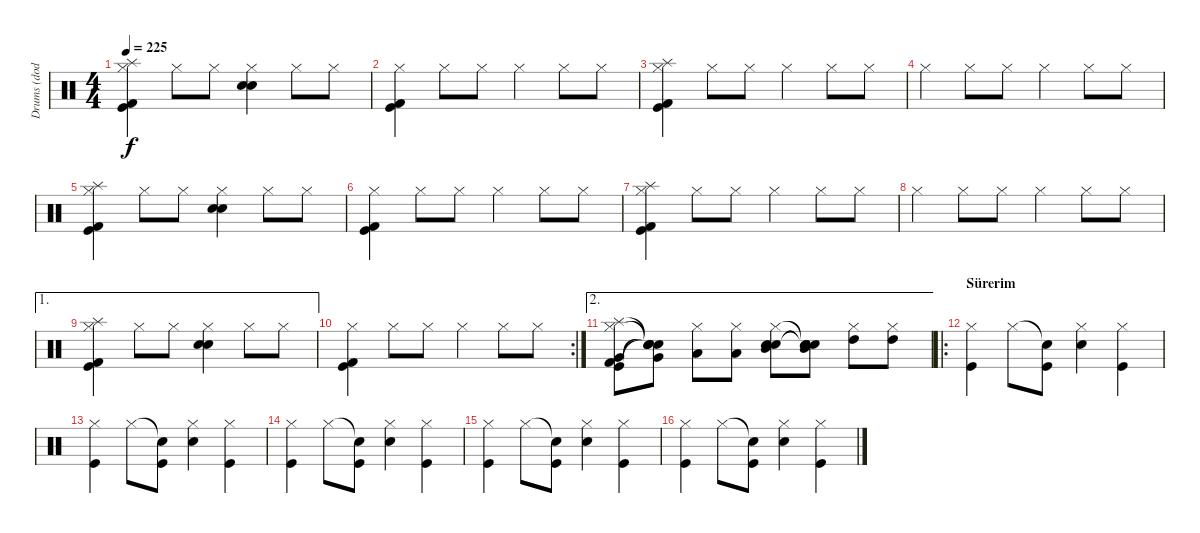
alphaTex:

\track ("Drums (dodo)" "Drums (dod") {instrument percussion}
\staff {score}
\articulation defaults
\ts (4 4)
\tempo 225
\clef neutral
\ks c
("Hi-Hat (closed)" "Splash (hit)" "Kick (hit)" "Kick (hit) 2").4{dy f} "Hi-Hat (closed)".8 "Hi-Hat (closed)".8 ("Hi-Hat (closed)" "Electric Snare (hit)" "Snare (hit) 2").4 "Hi-Hat (closed)".8 "Hi-Hat (closed)".8 |
("Hi-Hat (closed)" "Kick (hit)" "Kick (hit) 2").4 "Hi-Hat (closed)".8 "Hi-Hat (closed)".8 "Hi-Hat (closed)".4 "Hi-Hat (closed)".8 "Hi-Hat (closed)".8 |
("Hi-Hat (closed)" "Splash (hit)" "Kick (hit)" "Kick (hit) 2").4 "Hi-Hat (closed)".8 "Hi-Hat (closed)".8 "Hi-Hat (closed)".4 "Hi-Hat (closed)".8 "Hi-Hat (closed)".8 |
"Hi-Hat (closed)".4 "Hi-Hat (closed)".8 "Hi-Hat (closed)".8 "Hi-Hat (closed)".4 "Hi-Hat (closed)".8 "Hi-Hat (closed)".8 |
("Hi-Hat (closed)" "Splash (hit)" "Kick (hit)" "Kick (hit) 2").4 "Hi-Hat (closed)".8 "Hi-Hat (closed)".8 ("Hi-Hat (closed)" "Electric Snare (hit)" "Snare (hit) 2").4 "Hi-Hat (closed)".8 "Hi-Hat (closed)".8 |
("Hi-Hat (closed)" "Kick (hit)" "Kick (hit) 2").4 "Hi-Hat (closed)".8 "Hi-Hat (closed)".8 "Hi-Hat (closed)".4 "Hi-Hat (closed)".8 "Hi-Hat (closed)".8 |
("Hi-Hat (closed)" "Splash (hit)" "Kick (hit)" "Kick (hit) 2").4 "Hi-Hat (closed)".8 "Hi-Hat (closed)".8 "Hi-Hat (closed)".4 "Hi-Hat (closed)".8 "Hi-Hat (closed)".8 |
"Hi-Hat (closed)".4 "Hi-Hat (closed)".8 "Hi-Hat (closed)".8 "Hi-Hat (closed)".4 "Hi-Hat (closed)".8 "Hi-Hat (closed)".8 |
\ae 1
("Hi-Hat (closed)" "Splash (hit)" "Kick (hit)" "Kick (hit) 2").4 "Hi-Hat (closed)".8 "Hi-Hat (closed)".8 ("Hi-Hat (closed)" "Electric Snare (hit)" "Snare (hit) 2").4 "Hi-Hat (closed)".8 "Hi-Hat (closed)".8 |
\rc 2
("Hi-Hat (closed)" "Kick (hit)" "Kick (hit) 2").4 "Hi-Hat (closed)".8 "Hi-Hat (closed)".8 "Hi-Hat (closed)".4 "Hi-Hat (closed)".8 "Hi-Hat (closed)".8 |
\ae 2
("Hi-Hat (closed)" "Splash (hit)" "Kick (hit)" "Kick (hit) 2" "Very Low Tom (hit)").8 ("Snare (hit)"{t} "Snare (hit)"{t} "Snare (hit)"{t} "Snare (hit)"{t} "Very Low Tom (hit)").8 ("Hi-Hat (closed)" "Low Tom (hit)").8 ("Hi-Hat (closed)" "Low Tom (hit)").8 ("Hi-Hat (closed)" "Electric Snare (hit)" "Snare (hit) 2" "Mid Tom (hit)").8 ("Snare (hit)"{t} "Snare (hit)"{t} "Snare (hit)"{t} "Mid Tom (hit)").8 ("Hi-Hat (closed)" "High Tom (hit)").8 ("Hi-Hat (closed)" "High Tom (hit)").8 |
\ro
\section ("" "Sürerim")
("Hi-Hat (closed)" "Kick (hit)").4 "Hi-Hat (closed)".8 ("Snare (hit)"{t} "Kick (hit)").8 ("Hi-Hat (closed)" "Electric Snare (hit)").4 ("Hi-Hat (closed)" "Kick (hit)").4 |
("Hi-Hat (closed)" "Kick (hit)").4 "Hi-Hat (closed)".8 ("Snare (hit)"{t} "Kick (hit)").8 ("Hi-Hat (closed)" "Electric Snare (hit)").4 ("Hi-Hat (closed)" "Kick (hit)").4 |
("Hi-Hat (closed)" "Kick (hit)").4 "Hi-Hat (closed)".8 ("Snare (hit)"{t} "Kick (hit)").8 ("Hi-Hat (closed)" "Electric Snare (hit)").4 ("Hi-Hat (closed)" "Kick (hit)").4 |
("Hi-Hat (closed)" "Kick (hit)").4 "Hi-Hat (closed)".8 ("Snare (hit)"{t} "Kick (hit)").8 ("Hi-Hat (closed)" "Electric Snare (hit)").4 ("Hi-Hat (closed)" "Kick (hit)").4 |
("Hi-Hat (closed)" "Kick (hit)").4 "Hi-Hat (closed)".8 ("Snare (hit)"{t} "Kick (hit)").8 ("Hi-Hat (closed)" "Electric Snare (hit)").4 ("Hi-Hat (closed)" "Kick (hit)").4
